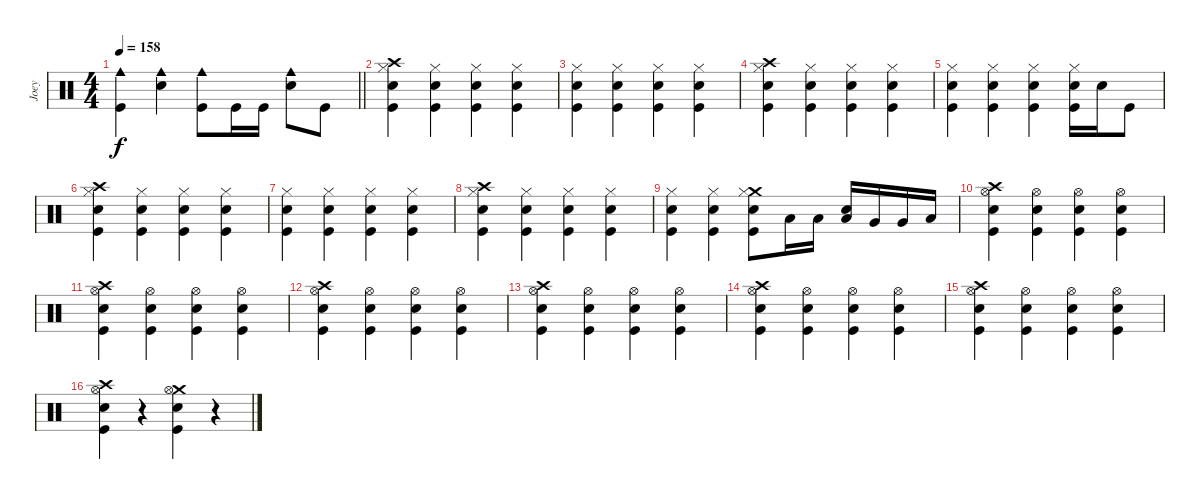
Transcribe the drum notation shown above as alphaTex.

\track ("Joey" "Joey") {instrument percussion}
\staff {score}
\articulation defaults
\ts (4 4)
\tempo 158
\clef neutral
\barLineRight lightlight
\ks c
("Cowbell medium (hit)" "Kick (hit)").4{dy f} ("Cowbell medium (hit)" "Electric Snare (hit)").4 ("Cowbell medium (hit)" "Kick (hit)").8 "Kick (hit)".16 "Kick (hit)".16 ("Cowbell medium (hit)" "Electric Snare (hit)").8 "Kick (hit)".8 |
("Crash high (hit)" "Electric Snare (hit)" "Kick (hit)" "Hi-Hat (closed)").4 ("Electric Snare (hit)" "Kick (hit)" "Hi-Hat (closed)").4 ("Electric Snare (hit)" "Kick (hit)" "Hi-Hat (closed)").4 ("Electric Snare (hit)" "Kick (hit)" "Hi-Hat (closed)").4 |
("Electric Snare (hit)" "Kick (hit)" "Hi-Hat (closed)").4 ("Electric Snare (hit)" "Kick (hit)" "Hi-Hat (closed)").4 ("Electric Snare (hit)" "Kick (hit)" "Hi-Hat (closed)").4 ("Electric Snare (hit)" "Kick (hit)" "Hi-Hat (closed)").4 |
("Crash high (hit)" "Electric Snare (hit)" "Kick (hit)" "Hi-Hat (closed)").4 ("Electric Snare (hit)" "Kick (hit)" "Hi-Hat (closed)").4 ("Electric Snare (hit)" "Kick (hit)" "Hi-Hat (closed)").4 ("Electric Snare (hit)" "Kick (hit)" "Hi-Hat (closed)").4 |
("Electric Snare (hit)" "Kick (hit)" "Hi-Hat (closed)").4 ("Electric Snare (hit)" "Kick (hit)" "Hi-Hat (closed)").4 ("Electric Snare (hit)" "Kick (hit)" "Hi-Hat (closed)").4 ("Electric Snare (hit)" "Kick (hit)" "Hi-Hat (closed)").16 "Electric Snare (hit)".16 "Kick (hit)".8 |
("Crash high (hit)" "Electric Snare (hit)" "Kick (hit)" "Hi-Hat (closed)").4 ("Electric Snare (hit)" "Kick (hit)" "Hi-Hat (closed)").4 ("Electric Snare (hit)" "Kick (hit)" "Hi-Hat (closed)").4 ("Electric Snare (hit)" "Kick (hit)" "Hi-Hat (closed)").4 |
("Electric Snare (hit)" "Kick (hit)" "Hi-Hat (closed)").4 ("Electric Snare (hit)" "Kick (hit)" "Hi-Hat (closed)").4 ("Electric Snare (hit)" "Kick (hit)" "Hi-Hat (closed)").4 ("Electric Snare (hit)" "Kick (hit)" "Hi-Hat (closed)").4 |
("Crash high (hit)" "Electric Snare (hit)" "Kick (hit)" "Hi-Hat (closed)").4 ("Electric Snare (hit)" "Kick (hit)" "Hi-Hat (closed)").4 ("Electric Snare (hit)" "Kick (hit)" "Hi-Hat (closed)").4 ("Electric Snare (hit)" "Kick (hit)" "Hi-Hat (closed)").4 |
("Electric Snare (hit)" "Kick (hit)" "Hi-Hat (closed)").4 ("Electric Snare (hit)" "Kick (hit)" "Hi-Hat (closed)").4 ("Crash medium (hit)" "Electric Snare (hit)" "Kick (hit)" "Hi-Hat (closed)").8 "Low Tom (hit)".16 "Low Tom (hit)".16 ("Low Tom (hit)" "Electric Snare (hit)").16 "Very Low Tom (hit)".16 "Very Low Tom (hit)".16 "Low Floor Tom (hit)".16 |
("Crash high (hit)" "Electric Snare (hit)" "Kick (hit)" "Hi-Hat (open)").4 ("Hi-Hat (open)" "Electric Snare (hit)" "Kick (hit)").4 ("Hi-Hat (open)" "Electric Snare (hit)" "Kick (hit)").4 ("Hi-Hat (open)" "Electric Snare (hit)" "Kick (hit)").4 |
("Crash high (hit)" "Electric Snare (hit)" "Kick (hit)" "Hi-Hat (open)").4 ("Hi-Hat (open)" "Electric Snare (hit)" "Kick (hit)").4 ("Hi-Hat (open)" "Electric Snare (hit)" "Kick (hit)").4 ("Hi-Hat (open)" "Electric Snare (hit)" "Kick (hit)").4 |
("Crash high (hit)" "Electric Snare (hit)" "Kick (hit)" "Hi-Hat (open)").4 ("Hi-Hat (open)" "Electric Snare (hit)" "Kick (hit)").4 ("Hi-Hat (open)" "Electric Snare (hit)" "Kick (hit)").4 ("Hi-Hat (open)" "Electric Snare (hit)" "Kick (hit)").4 |
("Crash high (hit)" "Electric Snare (hit)" "Kick (hit)" "Hi-Hat (open)").4 ("Hi-Hat (open)" "Electric Snare (hit)" "Kick (hit)").4 ("Hi-Hat (open)" "Electric Snare (hit)" "Kick (hit)").4 ("Hi-Hat (open)" "Electric Snare (hit)" "Kick (hit)").4 |
("Crash high (hit)" "Electric Snare (hit)" "Kick (hit)" "Hi-Hat (open)").4 ("Hi-Hat (open)" "Electric Snare (hit)" "Kick (hit)").4 ("Hi-Hat (open)" "Electric Snare (hit)" "Kick (hit)").4 ("Hi-Hat (open)" "Electric Snare (hit)" "Kick (hit)").4 |
("Crash high (hit)" "Electric Snare (hit)" "Kick (hit)" "Hi-Hat (open)").4 ("Hi-Hat (open)" "Electric Snare (hit)" "Kick (hit)").4 ("Hi-Hat (open)" "Electric Snare (hit)" "Kick (hit)").4 ("Hi-Hat (open)" "Electric Snare (hit)" "Kick (hit)").4 |
("Crash high (hit)" "Electric Snare (hit)" "Kick (hit)" "Hi-Hat (open)").4 r.4 ("Crash medium (hit)" "Electric Snare (hit)" "Kick (hit)" "Hi-Hat (open)").4 r.4
